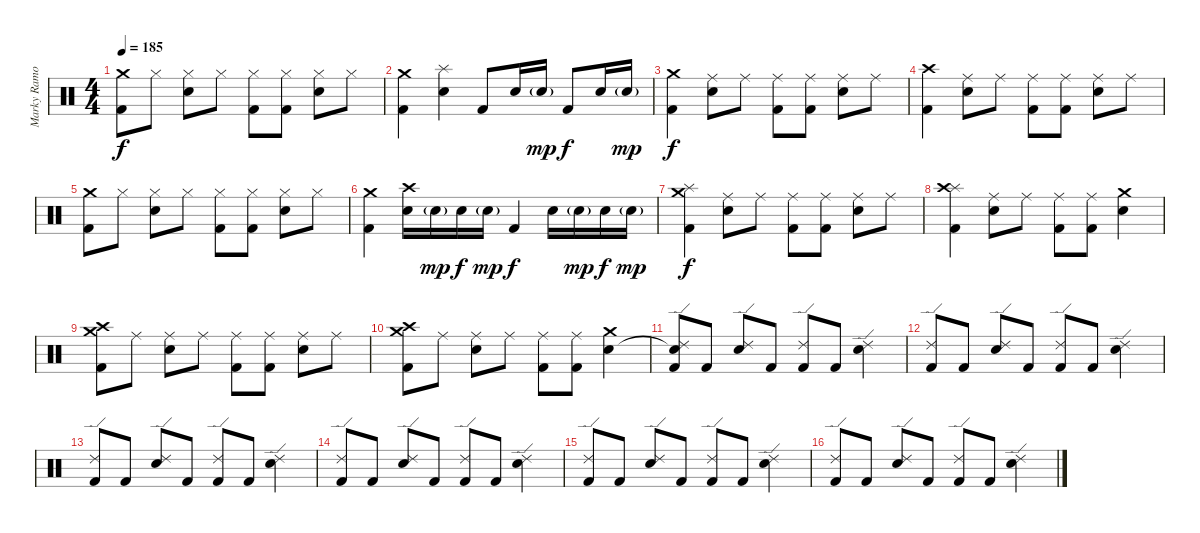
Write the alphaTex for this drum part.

\track ("Marky Ramone" "Marky Ramo") {instrument percussion}
\staff {score}
\articulation defaults
\ts (4 4)
\tempo 185
\clef neutral
\ks c
("Crash medium (hit)" "Kick (hit) 2").8{dy f} "Hi-Hat (closed)".8 ("Hi-Hat (closed)" "Electric Snare (hit)").8 "Hi-Hat (closed)".8 ("Hi-Hat (closed)" "Kick (hit) 2").8 ("Hi-Hat (closed)" "Kick (hit) 2").8 ("Hi-Hat (closed)" "Electric Snare (hit)").8 "Hi-Hat (closed)".8 |
("Crash medium (hit)" "Kick (hit) 2").4 ("Splash (hit)" "Electric Snare (hit)").4 "Kick (hit) 2".8 "Electric Snare (hit)".16 "Electric Snare (hit)"{g}.16{dy mp} "Kick (hit) 2".8{dy f} "Electric Snare (hit)".16 "Electric Snare (hit)"{g}.16{dy mp} |
("Crash medium (hit)" "Kick (hit) 2").4{dy f} ("Ride (middle)" "Electric Snare (hit)").8 "Ride (middle)".8 ("Ride (middle)" "Kick (hit) 2").8 ("Ride (middle)" "Kick (hit) 2").8 ("Ride (middle)" "Electric Snare (hit)").8 "Ride (middle)".8 |
("Crash high (hit)" "Kick (hit) 2").4 ("Ride (middle)" "Electric Snare (hit)").8 "Ride (middle)".8 ("Ride (middle)" "Kick (hit) 2").8 ("Ride (middle)" "Kick (hit) 2").8 ("Ride (middle)" "Electric Snare (hit)").8 "Ride (middle)".8 |
("Crash medium (hit)" "Kick (hit) 2").8 "Hi-Hat (closed)".8 ("Hi-Hat (closed)" "Electric Snare (hit)").8 "Hi-Hat (closed)".8 ("Hi-Hat (closed)" "Kick (hit) 2").8 ("Hi-Hat (closed)" "Kick (hit) 2").8 ("Hi-Hat (closed)" "Electric Snare (hit)").8 "Hi-Hat (closed)".8 |
("Crash medium (hit)" "Kick (hit) 2").4 ("Crash high (hit)" "Electric Snare (hit)").16 "Electric Snare (hit)"{g}.16{dy mp} "Electric Snare (hit)".16{dy f} "Electric Snare (hit)"{g}.16{dy mp} "Kick (hit) 2".4{dy f} "Electric Snare (hit)".16 "Electric Snare (hit)"{g}.16{dy mp} "Electric Snare (hit)".16{dy f} "Electric Snare (hit)"{g}.16{dy mp} |
("Crash medium (hit)" "Splash (hit)" "Kick (hit) 2").4{dy f} ("Ride (middle)" "Electric Snare (hit)").8 "Ride (middle)".8 ("Ride (middle)" "Kick (hit) 2").8 ("Ride (middle)" "Kick (hit) 2").8 ("Ride (middle)" "Electric Snare (hit)").8 "Ride (middle)".8 |
("Splash (hit)" "Crash high (hit)" "Kick (hit) 2").4 ("Ride (middle)" "Electric Snare (hit)").8 "Ride (middle)".8 ("Ride (middle)" "Kick (hit) 2").8 ("Ride (middle)" "Kick (hit) 2").8 ("Crash medium (hit)" "Electric Snare (hit)").4 |
("Crash medium (hit)" "Crash high (hit)" "Kick (hit) 2").8 "Ride (middle)".8 ("Ride (middle)" "Electric Snare (hit)").8 "Ride (middle)".8 ("Ride (middle)" "Kick (hit) 2").8 ("Ride (middle)" "Kick (hit) 2").8 ("Ride (middle)" "Electric Snare (hit)").8 "Ride (middle)".8 |
("Crash medium (hit)" "Crash high (hit)" "Kick (hit) 2").8 "Ride (middle)".8 ("Ride (middle)" "Electric Snare (hit)").8 "Ride (middle)".8 ("Ride (middle)" "Kick (hit) 2").8 ("Ride (middle)" "Kick (hit) 2").8 ("Crash medium (hit)" "Electric Snare (hit)").4 |
("Ride (edge) 2" "Snare (hit)"{t} "Kick (hit) 2").8 "Kick (hit) 2".8 ("Ride (edge) 2" "Electric Snare (hit)").8 "Kick (hit) 2".8 ("Ride (edge) 2" "Kick (hit) 2").8 "Kick (hit) 2".8 ("Ride (edge) 2" "Electric Snare (hit)").4 |
("Ride (edge) 2" "Kick (hit) 2").8 "Kick (hit) 2".8 ("Ride (edge) 2" "Electric Snare (hit)").8 "Kick (hit) 2".8 ("Ride (edge) 2" "Kick (hit) 2").8 "Kick (hit) 2".8 ("Ride (edge) 2" "Electric Snare (hit)").4 |
("Ride (edge) 2" "Kick (hit) 2").8 "Kick (hit) 2".8 ("Ride (edge) 2" "Electric Snare (hit)").8 "Kick (hit) 2".8 ("Ride (edge) 2" "Kick (hit) 2").8 "Kick (hit) 2".8 ("Ride (edge) 2" "Electric Snare (hit)").4 |
("Ride (edge) 2" "Kick (hit) 2").8 "Kick (hit) 2".8 ("Ride (edge) 2" "Electric Snare (hit)").8 "Kick (hit) 2".8 ("Ride (edge) 2" "Kick (hit) 2").8 "Kick (hit) 2".8 ("Ride (edge) 2" "Electric Snare (hit)").4 |
("Ride (edge) 2" "Kick (hit) 2").8 "Kick (hit) 2".8 ("Ride (edge) 2" "Electric Snare (hit)").8 "Kick (hit) 2".8 ("Ride (edge) 2" "Kick (hit) 2").8 "Kick (hit) 2".8 ("Ride (edge) 2" "Electric Snare (hit)").4 |
("Ride (edge) 2" "Kick (hit) 2").8 "Kick (hit) 2".8 ("Ride (edge) 2" "Electric Snare (hit)").8 "Kick (hit) 2".8 ("Ride (edge) 2" "Kick (hit) 2").8 "Kick (hit) 2".8 ("Ride (edge) 2" "Electric Snare (hit)").4
